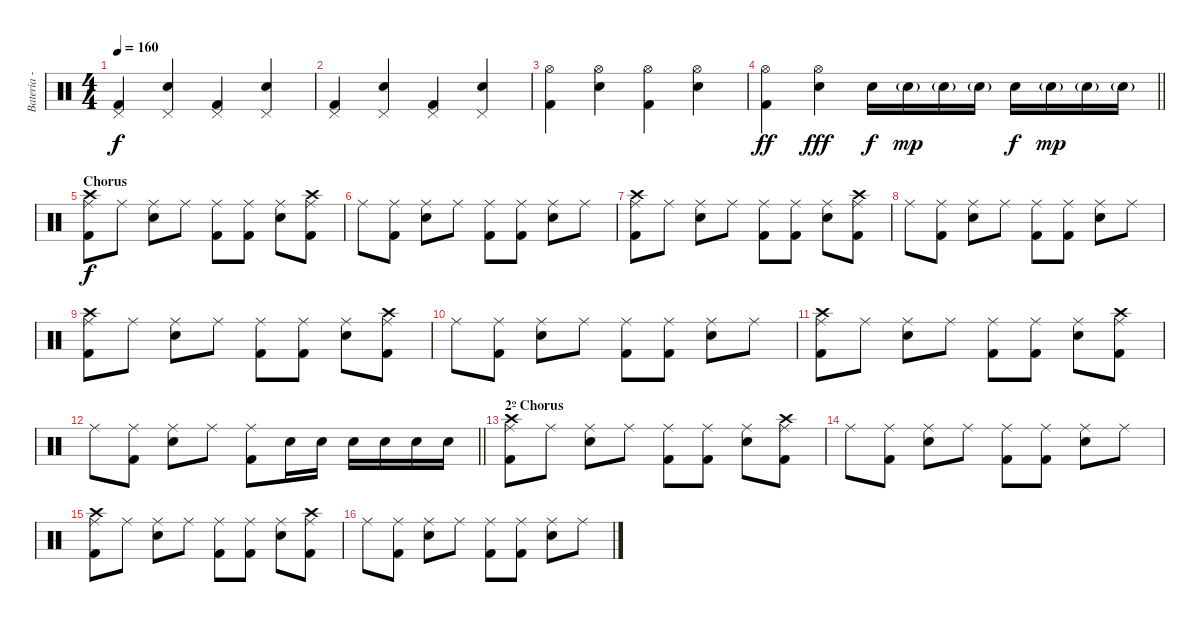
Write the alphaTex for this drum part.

\track ("Bateria - Larzon" "Bateria - ") {instrument percussion}
\staff {score}
\articulation defaults
\ts (4 4)
\tempo 160
\clef neutral
\ks c
("Kick (hit) 2" "Pedal Hi-Hat (hit)").4{dy f} ("Electric Snare (hit)" "Pedal Hi-Hat (hit)").4 ("Kick (hit) 2" "Pedal Hi-Hat (hit)").4 ("Electric Snare (hit)" "Pedal Hi-Hat (hit)").4 |
("Kick (hit) 2" "Pedal Hi-Hat (hit)").4 ("Electric Snare (hit)" "Pedal Hi-Hat (hit)").4 ("Kick (hit) 2" "Pedal Hi-Hat (hit)").4 ("Electric Snare (hit)" "Pedal Hi-Hat (hit)").4 |
("Kick (hit) 2" "Hi-Hat (open)").4 ("Electric Snare (hit)" "Hi-Hat (open)").4 ("Kick (hit) 2" "Hi-Hat (open)").4 ("Electric Snare (hit)" "Hi-Hat (open)").4 |
\barLineRight lightlight
("Kick (hit) 2" "Hi-Hat (open)").4{dy ff} ("Electric Snare (hit)" "Hi-Hat (open)").4{dy fff} "Electric Snare (hit)".16{dy f} "Electric Snare (hit)"{g}.16{dy mp} "Electric Snare (hit)"{g}.16 "Electric Snare (hit)"{g}.16 "Electric Snare (hit)".16{dy f} "Electric Snare (hit)"{g}.16{dy mp} "Electric Snare (hit)"{g}.16 "Electric Snare (hit)"{g}.16 |
\section ("" "Chorus")
("Kick (hit) 2" "Ride (middle)" "Crash high (hit)").8{dy f} "Ride (middle)".8 ("Electric Snare (hit)" "Ride (middle)").8 "Ride (middle)".8 ("Kick (hit) 2" "Ride (middle)").8 ("Kick (hit) 2" "Ride (middle)").8 ("Electric Snare (hit)" "Ride (middle)").8 ("Kick (hit) 2" "Ride (middle)" "Crash high (hit)").8 |
"Ride (middle)".8 ("Kick (hit) 2" "Ride (middle)").8 ("Electric Snare (hit)" "Ride (middle)").8 "Ride (middle)".8 ("Kick (hit) 2" "Ride (middle)").8 ("Kick (hit) 2" "Ride (middle)").8 ("Electric Snare (hit)" "Ride (middle)").8 "Ride (middle)".8 |
("Kick (hit) 2" "Ride (middle)" "Crash high (hit)").8 "Ride (middle)".8 ("Electric Snare (hit)" "Ride (middle)").8 "Ride (middle)".8 ("Kick (hit) 2" "Ride (middle)").8 ("Kick (hit) 2" "Ride (middle)").8 ("Electric Snare (hit)" "Ride (middle)").8 ("Kick (hit) 2" "Ride (middle)" "Crash high (hit)").8 |
"Ride (middle)".8 ("Kick (hit) 2" "Ride (middle)").8 ("Electric Snare (hit)" "Ride (middle)").8 "Ride (middle)".8 ("Kick (hit) 2" "Ride (middle)").8 ("Kick (hit) 2" "Ride (middle)").8 ("Electric Snare (hit)" "Ride (middle)").8 "Ride (middle)".8 |
("Kick (hit) 2" "Ride (middle)" "Crash high (hit)").8 "Ride (middle)".8 ("Electric Snare (hit)" "Ride (middle)").8 "Ride (middle)".8 ("Kick (hit) 2" "Ride (middle)").8 ("Kick (hit) 2" "Ride (middle)").8 ("Electric Snare (hit)" "Ride (middle)").8 ("Kick (hit) 2" "Ride (middle)" "Crash high (hit)").8 |
"Ride (middle)".8 ("Kick (hit) 2" "Ride (middle)").8 ("Electric Snare (hit)" "Ride (middle)").8 "Ride (middle)".8 ("Kick (hit) 2" "Ride (middle)").8 ("Kick (hit) 2" "Ride (middle)").8 ("Electric Snare (hit)" "Ride (middle)").8 "Ride (middle)".8 |
("Kick (hit) 2" "Ride (middle)" "Crash high (hit)").8 "Ride (middle)".8 ("Electric Snare (hit)" "Ride (middle)").8 "Ride (middle)".8 ("Kick (hit) 2" "Ride (middle)").8 ("Kick (hit) 2" "Ride (middle)").8 ("Electric Snare (hit)" "Ride (middle)").8 ("Kick (hit) 2" "Ride (middle)" "Crash high (hit)").8 |
\barLineRight lightlight "Ride (middle)".8
("Kick (hit) 2" "Ride (middle)").8 ("Electric Snare (hit)" "Ride (middle)").8 "Ride (middle)".8 ("Kick (hit) 2" "Ride (middle)").8 "Electric Snare (hit)".16 "Electric Snare (hit)".16 "Electric Snare (hit)".16 "Electric Snare (hit)".16 "Electric Snare (hit)".16 "Electric Snare (hit)".16 |
\section ("" "2º Chorus")
("Kick (hit) 2" "Ride (middle)" "Crash high (hit)").8 "Ride (middle)".8 ("Electric Snare (hit)" "Ride (middle)").8 "Ride (middle)".8 ("Kick (hit) 2" "Ride (middle)").8 ("Kick (hit) 2" "Ride (middle)").8 ("Electric Snare (hit)" "Ride (middle)").8 ("Kick (hit) 2" "Ride (middle)" "Crash high (hit)").8 |
"Ride (middle)".8 ("Kick (hit) 2" "Ride (middle)").8 ("Electric Snare (hit)" "Ride (middle)").8 "Ride (middle)".8 ("Kick (hit) 2" "Ride (middle)").8 ("Kick (hit) 2" "Ride (middle)").8 ("Electric Snare (hit)" "Ride (middle)").8 "Ride (middle)".8 |
("Kick (hit) 2" "Ride (middle)" "Crash high (hit)").8 "Ride (middle)".8 ("Electric Snare (hit)" "Ride (middle)").8 "Ride (middle)".8 ("Kick (hit) 2" "Ride (middle)").8 ("Kick (hit) 2" "Ride (middle)").8 ("Electric Snare (hit)" "Ride (middle)").8 ("Kick (hit) 2" "Ride (middle)" "Crash high (hit)").8 |
"Ride (middle)".8 ("Kick (hit) 2" "Ride (middle)").8 ("Electric Snare (hit)" "Ride (middle)").8 "Ride (middle)".8 ("Kick (hit) 2" "Ride (middle)").8 ("Kick (hit) 2" "Ride (middle)").8 ("Electric Snare (hit)" "Ride (middle)").8 "Ride (middle)".8
